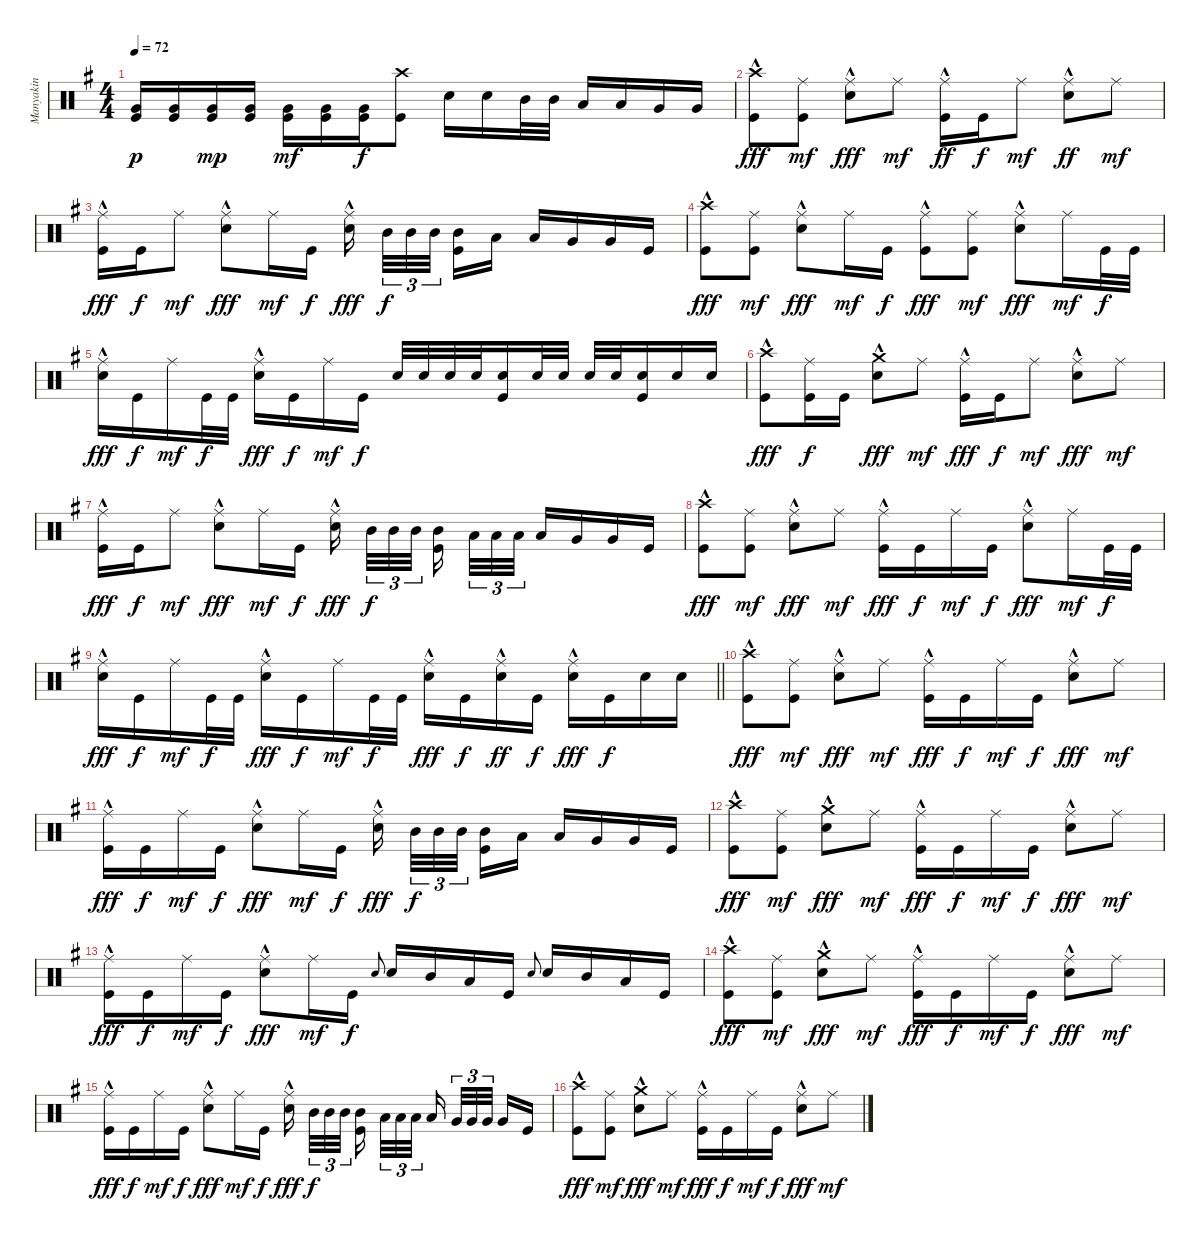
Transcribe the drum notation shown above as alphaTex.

\track ("Manyakin" "Manyakin") {instrument percussion}
\staff {score}
\articulation defaults
\ts (4 4)
\tempo 72
\clef neutral
\ks eminor
("Very Low Tom (hit)" "Kick (hit)").16{dy p beam Up} ("Very Low Tom (hit)" "Kick (hit)").16{beam Up} ("Very Low Tom (hit)" "Kick (hit)").16{dy mp beam Up} ("Very Low Tom (hit)" "Kick (hit)").16{beam Up} ("Very Low Tom (hit)" "Kick (hit)").16{dy mf beam Down} ("Very Low Tom (hit)" "Kick (hit)").16{beam Down} ("Very Low Tom (hit)" "Kick (hit)").16{dy f beam Down} ("Crash high (hit)" "Kick (hit)").8{beam Down} "Snare (hit) 2".16{beam Down} "Snare (hit) 2".16{beam Down} "Mid Tom (hit)".32{beam Down} "Mid Tom (hit)".32{beam Down} "Low Tom (hit)".16{beam Up} "Low Tom (hit)".16{beam Up} "Very Low Tom (hit)".16{beam Up} "Very Low Tom (hit)".16{beam Up} |
("Crash high (hit)"{hac} "Kick (hit)").8{dy fff beam Down} ("Ride (middle)" "Kick (hit)").8{dy mf beam Down} ("Ride (middle)"{hac} "Snare (hit) 2").8{dy fff beam Down} "Ride (middle)".8{dy mf beam Down} ("Ride (middle)"{hac} "Kick (hit)").16{dy ff beam Down} "Kick (hit)".16{dy f beam Down} "Ride (middle)".8{dy mf beam Down} ("Ride (middle)"{hac} "Snare (hit) 2").8{dy ff beam Down} "Ride (middle)".8{dy mf beam Down} |
("Ride (middle)"{hac} "Kick (hit)").16{dy fff} "Kick (hit)".16{dy f} "Ride (middle)".8{dy mf} ("Ride (middle)"{hac} "Snare (hit) 2").8{dy fff beam Down} "Ride (middle)".16{dy mf beam Down} "Kick (hit)".16{dy f beam Down} ("Ride (middle)"{hac} "Snare (hit) 2").16{dy fff beam Down beam splitsecondary} "Mid Tom (hit)".32{tu (3 2) dy f beam Down} "Mid Tom (hit)".32{tu (3 2) beam Down} "Mid Tom (hit)".32{tu (3 2) beam Down beam splitsecondary} ("Mid Tom (hit)" "Kick (hit)").16{beam Down} "Low Tom (hit)".16{beam Down} "Low Tom (hit)".16{beam Up} "Very Low Tom (hit)".16{beam Up} "Very Low Tom (hit)".16{beam Up} "Kick (hit)".16{beam Up} |
("Crash high (hit)"{hac} "Kick (hit)").8{dy fff beam Down} ("Ride (middle)" "Kick (hit)").8{dy mf beam Down} ("Ride (middle)"{hac} "Snare (hit) 2").8{dy fff beam Down} "Ride (middle)".16{dy mf beam Down} "Kick (hit)".16{dy f beam Down} ("Ride (middle)"{hac} "Kick (hit)").8{dy fff} ("Ride (middle)" "Kick (hit)").8{dy mf} ("Ride (middle)"{hac} "Snare (hit) 2").8{dy fff} "Ride (middle)".16{dy mf} "Kick (hit)".32{dy f} "Kick (hit)".32 |
("Ride (middle)"{hac} "Snare (hit) 2").16{dy fff beam Down} "Kick (hit)".16{dy f beam Down} "Ride (middle)".16{dy mf beam Down} "Kick (hit)".32{dy f beam Down} "Kick (hit)".32{beam Down} ("Ride (middle)"{hac} "Snare (hit) 2").16{dy fff beam Down} "Kick (hit)".16{dy f beam Down} "Ride (middle)".16{dy mf beam Down} "Kick (hit)".16{dy f beam Down} "Snare (hit) 2".32{beam Up} "Snare (hit) 2".32{beam Up} "Snare (hit) 2".32{beam Up} "Snare (hit) 2".32{beam Up} ("Snare (hit) 2" "Kick (hit)").16{beam Up} "Snare (hit) 2".32{beam Up} "Snare (hit) 2".32{beam Up} "Snare (hit) 2".32{beam Up} "Snare (hit) 2".32{beam Up} ("Snare (hit) 2" "Kick (hit)").16{beam Up} "Snare (hit) 2".16{beam Up} "Snare (hit) 2".16{beam Up} |
("Crash high (hit)"{hac} "Kick (hit)").8{dy fff beam Down} ("Ride (middle)" "Kick (hit)").16{dy f beam Down} "Kick (hit)".16{beam Down} ("Crash medium (hit)"{hac} "Snare (hit) 2").8{dy fff beam Down} "Ride (middle)".8{dy mf beam Down} ("Ride (middle)"{hac} "Kick (hit)").16{dy fff beam Down} "Kick (hit)".16{dy f beam Down} "Ride (middle)".8{dy mf beam Down} ("Ride (middle)"{hac} "Snare (hit) 2").8{dy fff beam Down} "Ride (middle)".8{dy mf beam Down} |
("Ride (middle)"{hac} "Kick (hit)").16{dy fff beam Down} "Kick (hit)".16{dy f beam Down} "Ride (middle)".8{dy mf beam Down} ("Ride (middle)"{hac} "Snare (hit) 2").8{dy fff beam Down} "Ride (middle)".16{dy mf beam Down} "Kick (hit)".16{dy f beam Down} ("Ride (middle)"{hac} "Snare (hit) 2").16{dy fff beam Down beam splitsecondary} "Mid Tom (hit)".32{tu (3 2) dy f beam Down} "Mid Tom (hit)".32{tu (3 2) beam Down} "Mid Tom (hit)".32{tu (3 2) beam Down beam splitsecondary} ("Mid Tom (hit)" "Kick (hit)").16{beam Down beam splitsecondary} "Low Tom (hit)".32{tu (3 2) beam Down} "Low Tom (hit)".32{tu (3 2) beam Down} "Low Tom (hit)".32{tu (3 2) beam Down} "Low Tom (hit)".16{beam Up} "Very Low Tom (hit)".16{beam Up} "Very Low Tom (hit)".16{beam Up} "Kick (hit)".16{beam Up} |
("Crash high (hit)"{hac} "Kick (hit)").8{dy fff beam Down} ("Ride (middle)" "Kick (hit)").8{dy mf beam Down} ("Ride (middle)"{hac} "Snare (hit) 2").8{dy fff beam Down} "Ride (middle)".8{dy mf beam Down} ("Ride (middle)"{hac} "Kick (hit)").16{dy fff beam Down} "Kick (hit)".16{dy f beam Down} "Ride (middle)".16{dy mf beam Down} "Kick (hit)".16{dy f beam Down} ("Ride (middle)"{hac} "Snare (hit) 2").8{dy fff beam Down} "Ride (middle)".16{dy mf beam Down} "Kick (hit)".32{dy f beam Down} "Kick (hit)".32{beam Down} |
\barLineRight lightlight
("Ride (middle)"{hac} "Snare (hit) 2").16{dy fff beam Down} "Kick (hit)".16{dy f beam Down} "Ride (middle)".16{dy mf beam Down} "Kick (hit)".32{dy f beam Down} "Kick (hit)".32{beam Down} ("Ride (middle)"{hac} "Snare (hit) 2").16{dy fff beam Down} "Kick (hit)".16{dy f beam Down} "Ride (middle)".16{dy mf beam Down} "Kick (hit)".32{dy f beam Down} "Kick (hit)".32{beam Down} ("Ride (middle)"{hac} "Snare (hit) 2").16{dy fff beam Down} "Kick (hit)".16{dy f beam Down} ("Ride (middle)"{hac} "Snare (hit) 2").16{dy ff beam Down} "Kick (hit)".16{dy f beam Down} ("Ride (middle)"{hac} "Snare (hit) 2").16{dy fff beam Down} "Kick (hit)".16{dy f beam Down} "Snare (hit) 2".16{beam Down} "Snare (hit) 2".16{beam Down} |
("Crash high (hit)"{hac} "Kick (hit)").8{dy fff beam Down} ("Ride (middle)" "Kick (hit)").8{dy mf beam Down} ("Ride (middle)"{hac} "Snare (hit) 2").8{dy fff beam Down} "Ride (middle)".8{dy mf beam Down} ("Ride (middle)"{hac} "Kick (hit)").16{dy fff beam Down} "Kick (hit)".16{dy f beam Down} "Ride (middle)".16{dy mf beam Down} "Kick (hit)".16{dy f beam Down} ("Ride (middle)"{hac} "Snare (hit) 2").8{dy fff beam Down} "Ride (middle)".8{dy mf beam Down} |
("Ride (middle)"{hac} "Kick (hit)").16{dy fff beam Down} "Kick (hit)".16{dy f beam Down} "Ride (middle)".16{dy mf beam Down} "Kick (hit)".16{dy f beam Down} ("Ride (middle)"{hac} "Snare (hit) 2").8{dy fff beam Down} "Ride (middle)".16{dy mf beam Down} "Kick (hit)".16{dy f beam Down} ("Ride (middle)"{hac} "Snare (hit) 2").16{dy fff beam Down beam splitsecondary} "Mid Tom (hit)".32{tu (3 2) dy f beam Down} "Mid Tom (hit)".32{tu (3 2) beam Down} "Mid Tom (hit)".32{tu (3 2) beam Down beam splitsecondary} ("Mid Tom (hit)" "Kick (hit)").16{beam Down} "Low Tom (hit)".16{beam Down} "Low Tom (hit)".16{beam Up} "Very Low Tom (hit)".16{beam Up} "Very Low Tom (hit)".16{beam Up} "Kick (hit)".16{beam Up} |
("Crash high (hit)"{hac} "Kick (hit)").8{dy fff beam Down} ("Ride (middle)" "Kick (hit)").8{dy mf beam Down} ("Crash medium (hit)"{hac} "Snare (hit) 2").8{dy fff beam Down} "Ride (middle)".8{dy mf beam Down} ("Ride (middle)"{hac} "Kick (hit)").16{dy fff beam Down} "Kick (hit)".16{dy f beam Down} "Ride (middle)".16{dy mf beam Down} "Kick (hit)".16{dy f beam Down} ("Ride (middle)"{hac} "Snare (hit) 2").8{dy fff beam Down} "Ride (middle)".8{dy mf beam Down} |
("Ride (middle)"{hac} "Kick (hit)").16{dy fff beam Down} "Kick (hit)".16{dy f beam Down} "Ride (middle)".16{dy mf beam Down} "Kick (hit)".16{dy f beam Down} ("Ride (middle)"{hac} "Snare (hit) 2").8{dy fff beam Down} "Ride (middle)".16{dy mf beam Down} "Kick (hit)".16{dy f beam Down} "Snare (hit) 2".8{gr onbeat} "Snare (hit) 2".16{beam Up} "Mid Tom (hit)".16{beam Up} "Low Tom (hit)".16{beam Up} "Kick (hit)".16{beam Up} "Snare (hit) 2".8{gr onbeat} "Snare (hit) 2".16{beam Up} "Mid Tom (hit)".16{beam Up} "Low Tom (hit)".16{beam Up} "Kick (hit)".16{beam Up} |
("Crash high (hit)"{hac} "Kick (hit)").8{dy fff beam Down} ("Ride (middle)" "Kick (hit)").8{dy mf beam Down} ("Crash medium (hit)"{hac} "Snare (hit) 2").8{dy fff beam Down} "Ride (middle)".8{dy mf beam Down} ("Ride (middle)"{hac} "Kick (hit)").16{dy fff beam Down} "Kick (hit)".16{dy f beam Down} "Ride (middle)".16{dy mf beam Down} "Kick (hit)".16{dy f beam Down} ("Ride (middle)"{hac} "Snare (hit) 2").8{dy fff beam Down} "Ride (middle)".8{dy mf beam Down} |
("Ride (middle)"{hac} "Kick (hit)").16{dy fff beam Down} "Kick (hit)".16{dy f beam Down} "Ride (middle)".16{dy mf beam Down} "Kick (hit)".16{dy f beam Down} ("Ride (middle)"{hac} "Snare (hit) 2").8{dy fff beam Down} "Ride (middle)".16{dy mf beam Down} "Kick (hit)".16{dy f beam Down} ("Ride (middle)"{hac} "Snare (hit) 2").16{dy fff beam Down beam splitsecondary} "Mid Tom (hit)".32{tu (3 2) dy f beam Down} "Mid Tom (hit)".32{tu (3 2) beam Down} "Mid Tom (hit)".32{tu (3 2) beam Down beam splitsecondary} ("Mid Tom (hit)" "Kick (hit)").16{beam Down beam splitsecondary} "Low Tom (hit)".32{tu (3 2) beam Down} "Low Tom (hit)".32{tu (3 2) beam Down} "Low Tom (hit)".32{tu (3 2) beam Down} "Low Tom (hit)".16{beam Up beam splitsecondary} "Very Low Tom (hit)".32{tu (3 2) beam Up} "Very Low Tom (hit)".32{tu (3 2) beam Up} "Very Low Tom (hit)".32{tu (3 2) beam Up beam splitsecondary} "Very Low Tom (hit)".16{beam Up} "Kick (hit)".16{beam Up} |
("Crash high (hit)"{hac} "Kick (hit)").8{dy fff beam Down} ("Ride (middle)" "Kick (hit)").8{dy mf beam Down} ("Crash medium (hit)"{hac} "Snare (hit) 2").8{dy fff beam Down} "Ride (middle)".8{dy mf beam Down} ("Ride (middle)"{hac} "Kick (hit)").16{dy fff beam Down} "Kick (hit)".16{dy f beam Down} "Ride (middle)".16{dy mf beam Down} "Kick (hit)".16{dy f beam Down} ("Ride (middle)"{hac} "Snare (hit) 2").8{dy fff beam Down} "Ride (middle)".8{dy mf beam Down}
